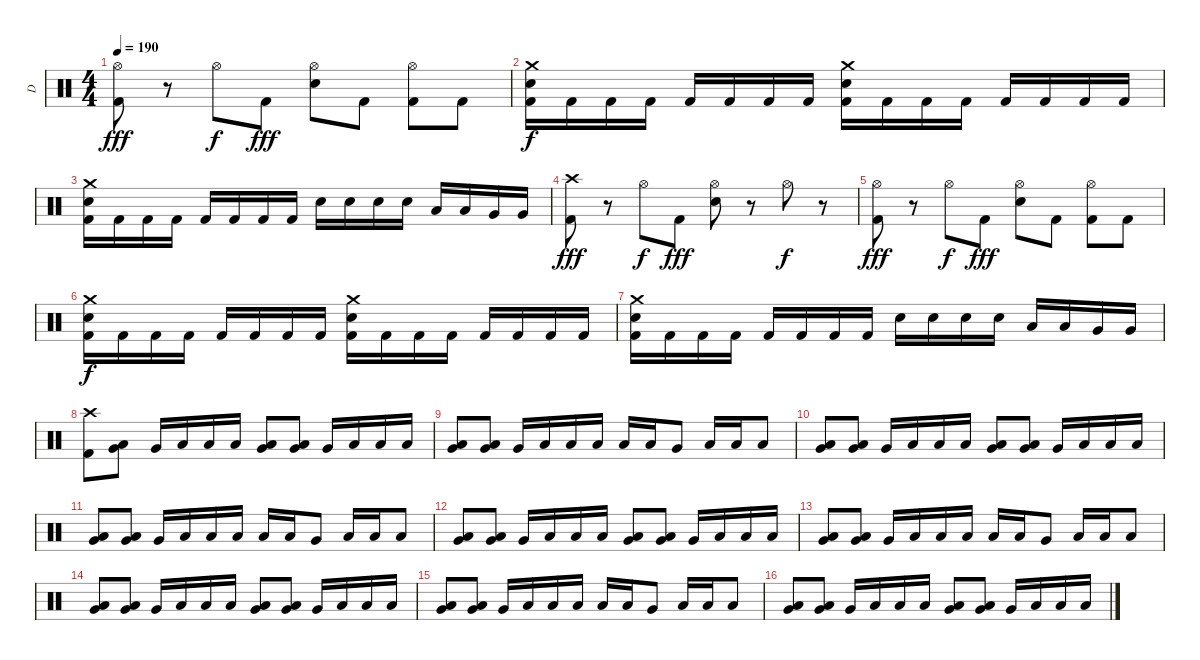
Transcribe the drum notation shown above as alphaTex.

\track ("D" "D") {instrument percussion}
\staff {score}
\articulation defaults
\ts (4 4)
\tempo 190
\clef neutral
\ks c
("Hi-Hat (open)" "Kick (hit) 2").8{dy fff} r.8 "Hi-Hat (open)".8{dy f} "Kick (hit) 2".8{dy fff} ("Hi-Hat (open)" "Electric Snare (hit)").8 "Kick (hit) 2".8 ("Hi-Hat (open)" "Kick (hit) 2").8 "Kick (hit) 2".8 |
("Crash medium (hit)" "Electric Snare (hit)" "Kick (hit) 2").16{dy f} "Kick (hit) 2".16 "Kick (hit) 2".16 "Kick (hit) 2".16 "Kick (hit) 2".16 "Kick (hit) 2".16 "Kick (hit) 2".16 "Kick (hit) 2".16 ("Crash medium (hit)" "Electric Snare (hit)" "Kick (hit) 2").16 "Kick (hit) 2".16 "Kick (hit) 2".16 "Kick (hit) 2".16 "Kick (hit) 2".16 "Kick (hit) 2".16 "Kick (hit) 2".16 "Kick (hit) 2".16 |
("Crash medium (hit)" "Electric Snare (hit)" "Kick (hit) 2").16 "Kick (hit) 2".16 "Kick (hit) 2".16 "Kick (hit) 2".16 "Kick (hit) 2".16 "Kick (hit) 2".16 "Kick (hit) 2".16 "Kick (hit) 2".16 "Electric Snare (hit)".16 "Electric Snare (hit)".16 "Electric Snare (hit)".16 "Electric Snare (hit)".16 "Low Tom (hit)".16 "Low Tom (hit)".16 "Very Low Tom (hit)".16 "Very Low Tom (hit)".16 |
("Crash high (hit)" "Kick (hit) 2").8{dy fff} r.8 "Hi-Hat (open)".8{dy f} "Kick (hit) 2".8{dy fff} ("Hi-Hat (open)" "Electric Snare (hit)").8 r.8 "Hi-Hat (open)".8{dy f} r.8 |
("Hi-Hat (open)" "Kick (hit) 2").8{dy fff} r.8 "Hi-Hat (open)".8{dy f} "Kick (hit) 2".8{dy fff} ("Hi-Hat (open)" "Electric Snare (hit)").8 "Kick (hit) 2".8 ("Hi-Hat (open)" "Kick (hit) 2").8 "Kick (hit) 2".8 |
("Crash medium (hit)" "Electric Snare (hit)" "Kick (hit) 2").16{dy f} "Kick (hit) 2".16 "Kick (hit) 2".16 "Kick (hit) 2".16 "Kick (hit) 2".16 "Kick (hit) 2".16 "Kick (hit) 2".16 "Kick (hit) 2".16 ("Crash medium (hit)" "Electric Snare (hit)" "Kick (hit) 2").16 "Kick (hit) 2".16 "Kick (hit) 2".16 "Kick (hit) 2".16 "Kick (hit) 2".16 "Kick (hit) 2".16 "Kick (hit) 2".16 "Kick (hit) 2".16 |
("Crash medium (hit)" "Electric Snare (hit)" "Kick (hit) 2").16 "Kick (hit) 2".16 "Kick (hit) 2".16 "Kick (hit) 2".16 "Kick (hit) 2".16 "Kick (hit) 2".16 "Kick (hit) 2".16 "Kick (hit) 2".16 "Electric Snare (hit)".16 "Electric Snare (hit)".16 "Electric Snare (hit)".16 "Electric Snare (hit)".16 "Low Tom (hit)".16 "Low Tom (hit)".16 "Very Low Tom (hit)".16 "Very Low Tom (hit)".16 |
("Crash high (hit)" "Kick (hit) 2").8 ("Low Floor Tom (hit)" "Very Low Tom (hit)").8 "Very Low Tom (hit)".16 "Low Tom (hit)".16 "Low Tom (hit)".16 "Low Tom (hit)".16 ("Low Floor Tom (hit)" "Very Low Tom (hit)").8 ("Low Floor Tom (hit)" "Very Low Tom (hit)").8 "Very Low Tom (hit)".16 "Low Tom (hit)".16 "Low Tom (hit)".16 "Low Tom (hit)".16 |
("Low Floor Tom (hit)" "Very Low Tom (hit)").8 ("Low Floor Tom (hit)" "Very Low Tom (hit)").8 "Very Low Tom (hit)".16 "Low Tom (hit)".16 "Low Tom (hit)".16 "Low Tom (hit)".16 "Low Floor Tom (hit)".16 "Low Floor Tom (hit)".16 "Very Low Tom (hit)".8 "Low Tom (hit)".16 "Low Tom (hit)".16 "Low Tom (hit)".8 |
("Low Floor Tom (hit)" "Very Low Tom (hit)").8 ("Low Floor Tom (hit)" "Very Low Tom (hit)").8 "Very Low Tom (hit)".16 "Low Tom (hit)".16 "Low Tom (hit)".16 "Low Tom (hit)".16 ("Low Floor Tom (hit)" "Very Low Tom (hit)").8 ("Low Floor Tom (hit)" "Very Low Tom (hit)").8 "Very Low Tom (hit)".16 "Low Tom (hit)".16 "Low Tom (hit)".16 "Low Tom (hit)".16 |
("Low Floor Tom (hit)" "Very Low Tom (hit)").8 ("Low Floor Tom (hit)" "Very Low Tom (hit)").8 "Very Low Tom (hit)".16 "Low Tom (hit)".16 "Low Tom (hit)".16 "Low Tom (hit)".16 "Low Floor Tom (hit)".16 "Low Floor Tom (hit)".16 "Very Low Tom (hit)".8 "Low Tom (hit)".16 "Low Tom (hit)".16 "Low Tom (hit)".8 |
("Low Floor Tom (hit)" "Very Low Tom (hit)").8 ("Low Floor Tom (hit)" "Very Low Tom (hit)").8 "Very Low Tom (hit)".16 "Low Tom (hit)".16 "Low Tom (hit)".16 "Low Tom (hit)".16 ("Low Floor Tom (hit)" "Very Low Tom (hit)").8 ("Low Floor Tom (hit)" "Very Low Tom (hit)").8 "Very Low Tom (hit)".16 "Low Tom (hit)".16 "Low Tom (hit)".16 "Low Tom (hit)".16 |
("Low Floor Tom (hit)" "Very Low Tom (hit)").8 ("Low Floor Tom (hit)" "Very Low Tom (hit)").8 "Very Low Tom (hit)".16 "Low Tom (hit)".16 "Low Tom (hit)".16 "Low Tom (hit)".16 "Low Floor Tom (hit)".16 "Low Floor Tom (hit)".16 "Very Low Tom (hit)".8 "Low Tom (hit)".16 "Low Tom (hit)".16 "Low Tom (hit)".8 |
("Low Floor Tom (hit)" "Very Low Tom (hit)").8 ("Low Floor Tom (hit)" "Very Low Tom (hit)").8 "Very Low Tom (hit)".16 "Low Tom (hit)".16 "Low Tom (hit)".16 "Low Tom (hit)".16 ("Low Floor Tom (hit)" "Very Low Tom (hit)").8 ("Low Floor Tom (hit)" "Very Low Tom (hit)").8 "Very Low Tom (hit)".16 "Low Tom (hit)".16 "Low Tom (hit)".16 "Low Tom (hit)".16 |
("Low Floor Tom (hit)" "Very Low Tom (hit)").8 ("Low Floor Tom (hit)" "Very Low Tom (hit)").8 "Very Low Tom (hit)".16 "Low Tom (hit)".16 "Low Tom (hit)".16 "Low Tom (hit)".16 "Low Floor Tom (hit)".16 "Low Floor Tom (hit)".16 "Very Low Tom (hit)".8 "Low Tom (hit)".16 "Low Tom (hit)".16 "Low Tom (hit)".8 |
("Low Floor Tom (hit)" "Very Low Tom (hit)").8 ("Low Floor Tom (hit)" "Very Low Tom (hit)").8 "Very Low Tom (hit)".16 "Low Tom (hit)".16 "Low Tom (hit)".16 "Low Tom (hit)".16 ("Low Floor Tom (hit)" "Very Low Tom (hit)").8 ("Low Floor Tom (hit)" "Very Low Tom (hit)").8 "Very Low Tom (hit)".16 "Low Tom (hit)".16 "Low Tom (hit)".16 "Low Tom (hit)".16
